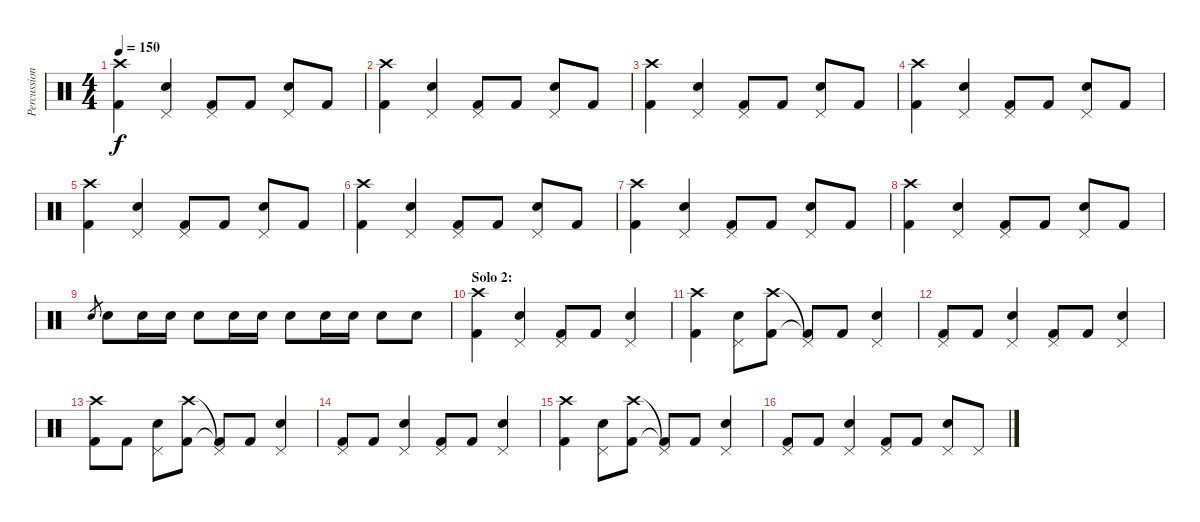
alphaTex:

\track ("Percussion" "Percussion") {instrument percussion}
\staff {score}
\articulation defaults
\ts (4 4)
\tempo 150
\clef neutral
\ks c
("Crash high (hit)" "Kick (hit) 2").4{dy f} ("Pedal Hi-Hat (hit)" "Snare (hit) 2").4 ("Pedal Hi-Hat (hit)" "Kick (hit) 2").8 "Kick (hit) 2".8 ("Pedal Hi-Hat (hit)" "Snare (hit) 2").8 "Kick (hit) 2".8 |
("Crash high (hit)" "Kick (hit) 2").4 ("Pedal Hi-Hat (hit)" "Snare (hit) 2").4 ("Pedal Hi-Hat (hit)" "Kick (hit) 2").8 "Kick (hit) 2".8 ("Pedal Hi-Hat (hit)" "Snare (hit) 2").8 "Kick (hit) 2".8 |
("Crash high (hit)" "Kick (hit) 2").4 ("Pedal Hi-Hat (hit)" "Snare (hit) 2").4 ("Pedal Hi-Hat (hit)" "Kick (hit) 2").8 "Kick (hit) 2".8 ("Pedal Hi-Hat (hit)" "Snare (hit) 2").8 "Kick (hit) 2".8 |
("Crash high (hit)" "Kick (hit) 2").4 ("Pedal Hi-Hat (hit)" "Snare (hit) 2").4 ("Pedal Hi-Hat (hit)" "Kick (hit) 2").8 "Kick (hit) 2".8 ("Pedal Hi-Hat (hit)" "Snare (hit) 2").8 "Kick (hit) 2".8 |
("Crash high (hit)" "Kick (hit) 2").4 ("Pedal Hi-Hat (hit)" "Snare (hit) 2").4 ("Pedal Hi-Hat (hit)" "Kick (hit) 2").8 "Kick (hit) 2".8 ("Pedal Hi-Hat (hit)" "Snare (hit) 2").8 "Kick (hit) 2".8 |
("Crash high (hit)" "Kick (hit) 2").4 ("Pedal Hi-Hat (hit)" "Snare (hit) 2").4 ("Pedal Hi-Hat (hit)" "Kick (hit) 2").8 "Kick (hit) 2".8 ("Pedal Hi-Hat (hit)" "Snare (hit) 2").8 "Kick (hit) 2".8 |
("Crash high (hit)" "Kick (hit) 2").4 ("Pedal Hi-Hat (hit)" "Snare (hit) 2").4 ("Pedal Hi-Hat (hit)" "Kick (hit) 2").8 "Kick (hit) 2".8 ("Pedal Hi-Hat (hit)" "Snare (hit) 2").8 "Kick (hit) 2".8 |
("Crash high (hit)" "Kick (hit) 2").4 ("Pedal Hi-Hat (hit)" "Snare (hit) 2").4 ("Pedal Hi-Hat (hit)" "Kick (hit) 2").8 "Kick (hit) 2".8 ("Pedal Hi-Hat (hit)" "Snare (hit) 2").8 "Kick (hit) 2".8 |
"Snare (hit) 2".8{gr} "Snare (hit) 2".8 "Snare (hit) 2".16 "Snare (hit) 2".16 "Snare (hit) 2".8 "Snare (hit) 2".16 "Snare (hit) 2".16 "Snare (hit) 2".8 "Snare (hit) 2".16 "Snare (hit) 2".16 "Snare (hit) 2".8 "Snare (hit) 2".8 |
\section ("" "Solo 2:")
("Crash high (hit)" "Kick (hit) 2").4 ("Pedal Hi-Hat (hit)" "Snare (hit) 2").4 ("Pedal Hi-Hat (hit)" "Kick (hit) 2").8 "Kick (hit) 2".8 ("Pedal Hi-Hat (hit)" "Snare (hit) 2").4 |
("Crash high (hit)" "Kick (hit) 2").4 ("Pedal Hi-Hat (hit)" "Snare (hit) 2").8 ("Crash high (hit)" "Kick (hit) 2").8 ("Pedal Hi-Hat (hit)"{t} "Kick (hit) 2"{t}).8 "Kick (hit) 2".8 ("Pedal Hi-Hat (hit)" "Snare (hit) 2").4 |
("Pedal Hi-Hat (hit)" "Kick (hit) 2").8 "Kick (hit) 2".8 ("Pedal Hi-Hat (hit)" "Snare (hit) 2").4 ("Pedal Hi-Hat (hit)" "Kick (hit) 2").8 "Kick (hit) 2".8 ("Pedal Hi-Hat (hit)" "Snare (hit) 2").4 |
("Crash high (hit)" "Kick (hit) 2").8 "Kick (hit) 2".8 ("Pedal Hi-Hat (hit)" "Snare (hit) 2").8 ("Crash high (hit)" "Kick (hit) 2").8 ("Pedal Hi-Hat (hit)"{t} "Kick (hit) 2"{t}).8 "Kick (hit) 2".8 ("Pedal Hi-Hat (hit)" "Snare (hit) 2").4 |
("Pedal Hi-Hat (hit)" "Kick (hit) 2").8 "Kick (hit) 2".8 ("Pedal Hi-Hat (hit)" "Snare (hit) 2").4 ("Pedal Hi-Hat (hit)" "Kick (hit) 2").8 "Kick (hit) 2".8 ("Pedal Hi-Hat (hit)" "Snare (hit) 2").4 |
("Crash high (hit)" "Kick (hit) 2").4 ("Pedal Hi-Hat (hit)" "Snare (hit) 2").8 ("Crash high (hit)" "Kick (hit) 2").8 ("Pedal Hi-Hat (hit)"{t} "Kick (hit) 2"{t}).8 "Kick (hit) 2".8 ("Pedal Hi-Hat (hit)" "Snare (hit) 2").4 |
("Pedal Hi-Hat (hit)" "Kick (hit) 2").8 "Kick (hit) 2".8 ("Pedal Hi-Hat (hit)" "Snare (hit) 2").4 ("Pedal Hi-Hat (hit)" "Kick (hit) 2").8 "Kick (hit) 2".8 ("Pedal Hi-Hat (hit)" "Snare (hit) 2").8 "Pedal Hi-Hat (hit)".8
